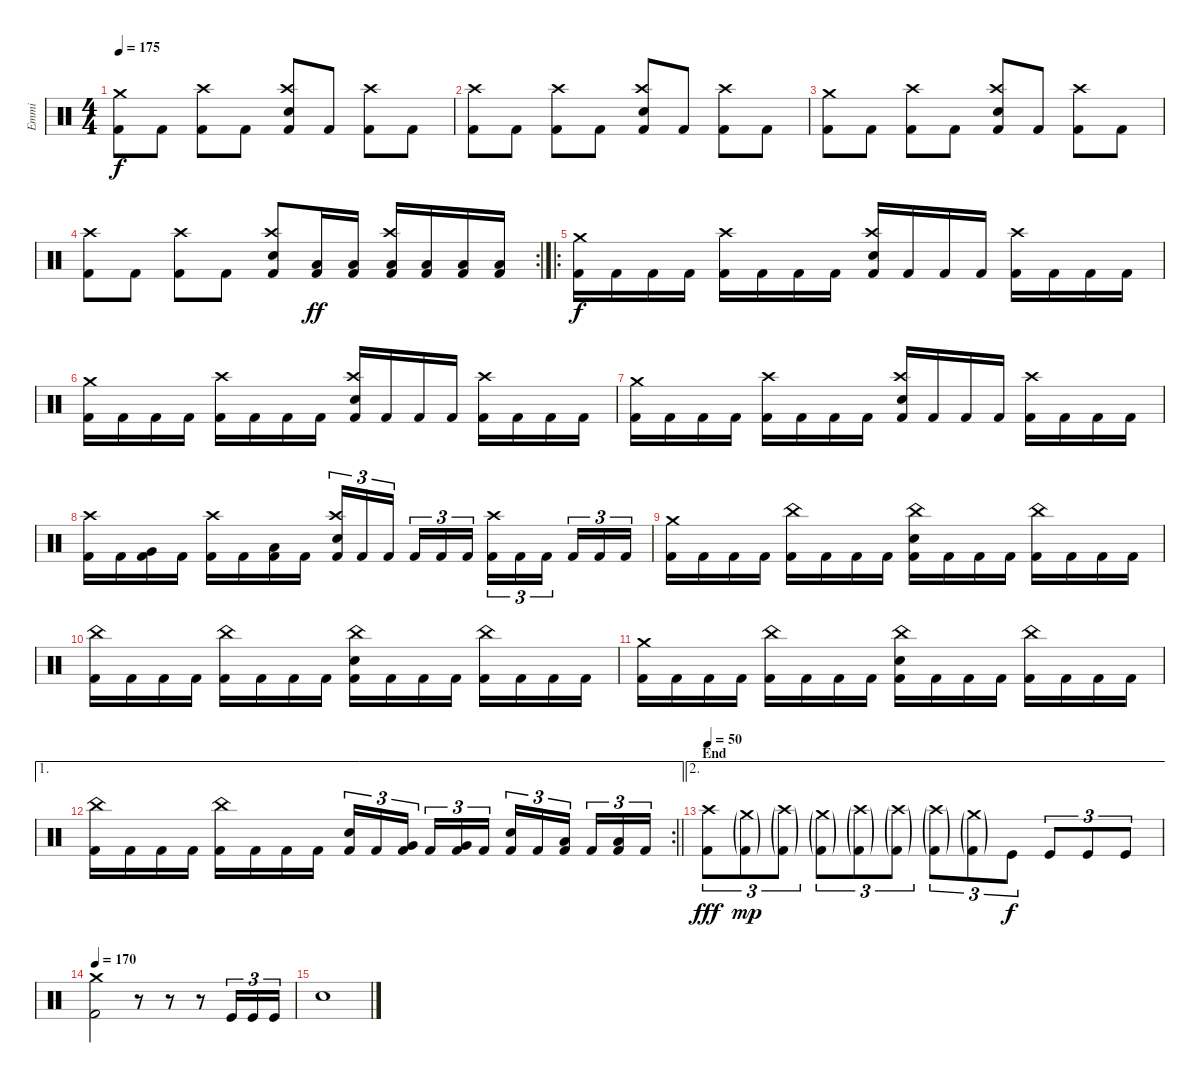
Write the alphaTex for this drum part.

\track ("Emmi" "Emmi") {instrument percussion}
\staff {score}
\articulation defaults
\ts (4 4)
\tempo 175
\clef neutral
\ks c
("Crash medium (hit)" "Kick (hit) 2").8{dy f} "Kick (hit) 2".8 ("Crash high (hit)" "Kick (hit) 2").8 "Kick (hit) 2".8 ("Crash high (hit)" "Electric Snare (hit)" "Kick (hit) 2").8 "Kick (hit) 2".8 ("Crash high (hit)" "Kick (hit) 2").8 "Kick (hit) 2".8 |
("Crash high (hit)" "Kick (hit) 2").8 "Kick (hit) 2".8 ("Crash high (hit)" "Kick (hit) 2").8 "Kick (hit) 2".8 ("Crash high (hit)" "Electric Snare (hit)" "Kick (hit) 2").8 "Kick (hit) 2".8 ("Crash high (hit)" "Kick (hit) 2").8 "Kick (hit) 2".8 |
("Crash medium (hit)" "Kick (hit) 2").8 "Kick (hit) 2".8 ("Crash high (hit)" "Kick (hit) 2").8 "Kick (hit) 2".8 ("Crash high (hit)" "Electric Snare (hit)" "Kick (hit) 2").8 "Kick (hit) 2".8 ("Crash high (hit)" "Kick (hit) 2").8 "Kick (hit) 2".8 |
\rc 2
("Crash high (hit)" "Kick (hit) 2").8 "Kick (hit) 2".8 ("Crash high (hit)" "Kick (hit) 2").8 "Kick (hit) 2".8 ("Crash high (hit)" "Electric Snare (hit)" "Kick (hit) 2").8 ("Low Floor Tom (hit)" "Kick (hit) 2").16{dy ff} ("Low Floor Tom (hit)" "Kick (hit) 2").16 ("Crash high (hit)" "Low Floor Tom (hit)" "Kick (hit) 2").16 ("Low Floor Tom (hit)" "Kick (hit) 2").16 ("Low Floor Tom (hit)" "Kick (hit) 2").16 ("Low Floor Tom (hit)" "Kick (hit) 2").16 |
\ro
("Crash medium (hit)" "Kick (hit) 2").16{dy f} "Kick (hit) 2".16 "Kick (hit) 2".16 "Kick (hit) 2".16 ("Crash high (hit)" "Kick (hit) 2").16 "Kick (hit) 2".16 "Kick (hit) 2".16 "Kick (hit) 2".16 ("Crash high (hit)" "Electric Snare (hit)" "Kick (hit) 2").16 "Kick (hit) 2".16 "Kick (hit) 2".16 "Kick (hit) 2".16 ("Crash high (hit)" "Kick (hit) 2").16 "Kick (hit) 2".16 "Kick (hit) 2".16 "Kick (hit) 2".16 |
("Crash medium (hit)" "Kick (hit) 2").16 "Kick (hit) 2".16 "Kick (hit) 2".16 "Kick (hit) 2".16 ("Crash high (hit)" "Kick (hit) 2").16 "Kick (hit) 2".16 "Kick (hit) 2".16 "Kick (hit) 2".16 ("Crash high (hit)" "Electric Snare (hit)" "Kick (hit) 2").16 "Kick (hit) 2".16 "Kick (hit) 2".16 "Kick (hit) 2".16 ("Crash high (hit)" "Kick (hit) 2").16 "Kick (hit) 2".16 "Kick (hit) 2".16 "Kick (hit) 2".16 |
("Crash medium (hit)" "Kick (hit) 2").16 "Kick (hit) 2".16 "Kick (hit) 2".16 "Kick (hit) 2".16 ("Crash high (hit)" "Kick (hit) 2").16 "Kick (hit) 2".16 "Kick (hit) 2".16 "Kick (hit) 2".16 ("Crash high (hit)" "Electric Snare (hit)" "Kick (hit) 2").16 "Kick (hit) 2".16 "Kick (hit) 2".16 "Kick (hit) 2".16 ("Crash high (hit)" "Kick (hit) 2").16 "Kick (hit) 2".16 "Kick (hit) 2".16 "Kick (hit) 2".16 |
("Crash high (hit)" "Kick (hit) 2").16 "Kick (hit) 2".16 ("Very Low Tom (hit)" "Kick (hit) 2").16 "Kick (hit) 2".16 ("Crash high (hit)" "Kick (hit) 2").16 "Kick (hit) 2".16 ("Low Floor Tom (hit)" "Kick (hit) 2").16 "Kick (hit) 2".16 ("Crash high (hit)" "Electric Snare (hit)" "Kick (hit) 2").16{tu (3 2)} "Kick (hit) 2".16{tu (3 2)} "Kick (hit) 2".16{tu (3 2) beam splitsecondary} "Kick (hit) 2".16{tu (3 2)} "Kick (hit) 2".16{tu (3 2)} "Kick (hit) 2".16{tu (3 2)} ("Crash high (hit)" "Kick (hit) 2").16{tu (3 2)} "Kick (hit) 2".16{tu (3 2)} "Kick (hit) 2".16{tu (3 2) beam splitsecondary} "Kick (hit) 2".16{tu (3 2)} "Kick (hit) 2".16{tu (3 2)} "Kick (hit) 2".16{tu (3 2)} |
("Crash medium (hit)" "Kick (hit) 2").16 "Kick (hit) 2".16 "Kick (hit) 2".16 "Kick (hit) 2".16 ("China (hit)" "Kick (hit) 2").16 "Kick (hit) 2".16 "Kick (hit) 2".16 "Kick (hit) 2".16 ("China (hit)" "Electric Snare (hit)" "Kick (hit) 2").16 "Kick (hit) 2".16 "Kick (hit) 2".16 "Kick (hit) 2".16 ("China (hit)" "Kick (hit) 2").16 "Kick (hit) 2".16 "Kick (hit) 2".16 "Kick (hit) 2".16 |
("China (hit)" "Kick (hit) 2").16 "Kick (hit) 2".16 "Kick (hit) 2".16 "Kick (hit) 2".16 ("China (hit)" "Kick (hit) 2").16 "Kick (hit) 2".16 "Kick (hit) 2".16 "Kick (hit) 2".16 ("China (hit)" "Electric Snare (hit)" "Kick (hit) 2").16 "Kick (hit) 2".16 "Kick (hit) 2".16 "Kick (hit) 2".16 ("China (hit)" "Kick (hit) 2").16 "Kick (hit) 2".16 "Kick (hit) 2".16 "Kick (hit) 2".16 |
("Crash medium (hit)" "Kick (hit) 2").16 "Kick (hit) 2".16 "Kick (hit) 2".16 "Kick (hit) 2".16 ("China (hit)" "Kick (hit) 2").16 "Kick (hit) 2".16 "Kick (hit) 2".16 "Kick (hit) 2".16 ("China (hit)" "Electric Snare (hit)" "Kick (hit) 2").16 "Kick (hit) 2".16 "Kick (hit) 2".16 "Kick (hit) 2".16 ("China (hit)" "Kick (hit) 2").16 "Kick (hit) 2".16 "Kick (hit) 2".16 "Kick (hit) 2".16 |
\ae 1
\rc 2
\barLineRight lightlight
("China (hit)" "Kick (hit) 2").16 "Kick (hit) 2".16 "Kick (hit) 2".16 "Kick (hit) 2".16 ("China (hit)" "Kick (hit) 2").16 "Kick (hit) 2".16 "Kick (hit) 2".16 "Kick (hit) 2".16 ("Electric Snare (hit)" "Kick (hit) 2").16{tu (3 2)} "Kick (hit) 2".16{tu (3 2)} ("Very Low Tom (hit)" "Kick (hit) 2").16{tu (3 2) beam splitsecondary} "Kick (hit) 2".16{tu (3 2)} ("Very Low Tom (hit)" "Kick (hit) 2").16{tu (3 2)} "Kick (hit) 2".16{tu (3 2)} ("Electric Snare (hit)" "Kick (hit) 2").16{tu (3 2)} "Kick (hit) 2".16{tu (3 2)} ("Low Floor Tom (hit)" "Kick (hit) 2").16{tu (3 2) beam splitsecondary} "Kick (hit) 2".16{tu (3 2)} ("Low Floor Tom (hit)" "Kick (hit) 2").16{tu (3 2)} "Kick (hit) 2".16{tu (3 2)} |
\ae 2
\section ("" "End")
\tempo 50
("Crash high (hit)" "Kick (hit) 2").8{tu (3 2) dy fff} ("Crash medium (hit)"{g} "Kick (hit) 2"{g}).8{tu (3 2) dy mp} ("Crash high (hit)"{g} "Kick (hit) 2"{g}).8{tu (3 2)} ("Crash medium (hit)"{g} "Kick (hit) 2"{g}).8{tu (3 2)} ("Crash high (hit)"{g} "Kick (hit) 2"{g}).8{tu (3 2)} ("Crash high (hit)"{g} "Kick (hit) 2"{g}).8{tu (3 2)} ("Crash high (hit)"{g} "Kick (hit) 2"{g}).8{tu (3 2)} ("Crash medium (hit)"{g} "Kick (hit) 2"{g}).8{tu (3 2)} "Kick (hit)".8{tu (3 2) dy f} "Kick (hit)".8{tu (3 2)} "Kick (hit)".8{tu (3 2)} "Kick (hit)".8{tu (3 2)} |
\tempo 170
("Crash medium (hit)" "Kick (hit) 2").2 r.8 r.8 r.8 "Kick (hit)".16{tu (3 2)} "Kick (hit)".16{tu (3 2)} "Kick (hit)".16{tu (3 2)} |
"Electric Snare (hit)".1
